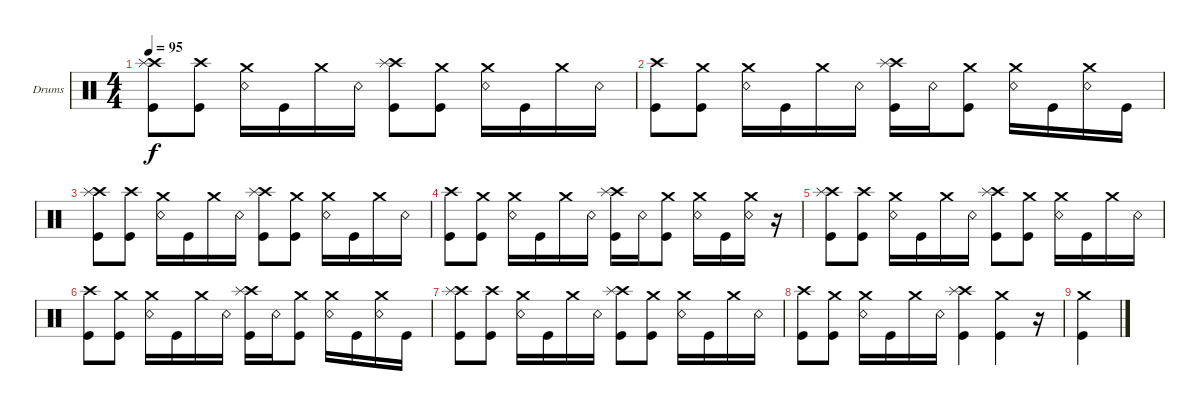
\defaultSystemsLayout 4
\bracketExtendMode groupsimilarinstruments
\firstSystemTrackNameOrientation horizontal
\otherSystemsTrackNameOrientation horizontal
\track ("Drumkit" "Drums") {instrument percussion}
\staff {score}
\articulation defaults
\ts (4 4)
\tempo 95
\clef neutral
\ks c
("Kick (hit)" "Crash high (hit)" "Splash (hit)").8{dy f} ("Kick (hit)" "Crash high (hit)").8 ("Snare (rim shot)" "Crash medium (hit)").16 "Kick (hit)".16 "Crash medium (hit)".16 "Snare (rim shot)".16 ("Kick (hit)" "Crash high (hit)" "Splash (hit)").8 ("Kick (hit)" "Crash medium (hit)").8 ("Snare (rim shot)" "Crash medium (hit)").16 "Kick (hit)".16 "Crash medium (hit)".16 "Snare (rim shot)".16 |
("Kick (hit)" "Crash high (hit)").8 ("Kick (hit)" "Crash medium (hit)").8 ("Snare (rim shot)" "Crash medium (hit)").16 "Kick (hit)".16 "Crash medium (hit)".16 "Snare (rim shot)".16 ("Kick (hit)" "Crash high (hit)" "Splash (hit)").16 "Snare (rim shot)".16 ("Kick (hit)" "Crash medium (hit)").8 ("Snare (rim shot)" "Crash medium (hit)").16 "Kick (hit)".16 ("Snare (rim shot)" "Crash medium (hit)").16 "Kick (hit)".16 |
("Kick (hit)" "Crash high (hit)" "Splash (hit)").8 ("Kick (hit)" "Crash high (hit)").8 ("Snare (rim shot)" "Crash medium (hit)").16 "Kick (hit)".16 "Crash medium (hit)".16 "Snare (rim shot)".16 ("Kick (hit)" "Crash high (hit)" "Splash (hit)").8 ("Kick (hit)" "Crash medium (hit)").8 ("Snare (rim shot)" "Crash medium (hit)").16 "Kick (hit)".16 "Crash medium (hit)".16 "Snare (rim shot)".16 |
("Kick (hit)" "Crash high (hit)").8 ("Kick (hit)" "Crash medium (hit)").8 ("Snare (rim shot)" "Crash medium (hit)").16 "Kick (hit)".16 "Crash medium (hit)".16 "Snare (rim shot)".16 ("Kick (hit)" "Crash high (hit)" "Splash (hit)").16 "Snare (rim shot)".16 ("Kick (hit)" "Crash medium (hit)").8 ("Snare (rim shot)" "Crash medium (hit)").16 "Kick (hit)".16 ("Snare (rim shot)" "Crash medium (hit)").16 r.16 |
("Kick (hit)" "Crash high (hit)" "Splash (hit)").8 ("Kick (hit)" "Crash high (hit)").8 ("Snare (rim shot)" "Crash medium (hit)").16 "Kick (hit)".16 "Crash medium (hit)".16 "Snare (rim shot)".16 ("Kick (hit)" "Crash high (hit)" "Splash (hit)").8 ("Kick (hit)" "Crash medium (hit)").8 ("Snare (rim shot)" "Crash medium (hit)").16 "Kick (hit)".16 "Crash medium (hit)".16 "Snare (rim shot)".16 |
("Kick (hit)" "Crash high (hit)").8 ("Kick (hit)" "Crash medium (hit)").8 ("Snare (rim shot)" "Crash medium (hit)").16 "Kick (hit)".16 "Crash medium (hit)".16 "Snare (rim shot)".16 ("Kick (hit)" "Crash high (hit)" "Splash (hit)").16 "Snare (rim shot)".16 ("Kick (hit)" "Crash medium (hit)").8 ("Snare (rim shot)" "Crash medium (hit)").16 "Kick (hit)".16 ("Snare (rim shot)" "Crash medium (hit)").16 "Kick (hit)".16 |
("Kick (hit)" "Crash high (hit)" "Splash (hit)").8 ("Kick (hit)" "Crash high (hit)").8 ("Snare (rim shot)" "Crash medium (hit)").16 "Kick (hit)".16 "Crash medium (hit)".16 "Snare (rim shot)".16 ("Kick (hit)" "Crash high (hit)" "Splash (hit)").8 ("Kick (hit)" "Crash medium (hit)").8 ("Snare (rim shot)" "Crash medium (hit)").16 "Kick (hit)".16 "Crash medium (hit)".16 "Snare (rim shot)".16 |
("Kick (hit)" "Crash high (hit)").8 ("Kick (hit)" "Crash medium (hit)").8 ("Snare (rim shot)" "Crash medium (hit)").16 "Kick (hit)".16 "Crash medium (hit)".16 "Snare (rim shot)".16 ("Kick (hit)" "Crash high (hit)" "Splash (hit)").4 ("Kick (hit)" "Crash medium (hit)").4 r.16 |
("Kick (hit)" "Crash medium (hit)").4
